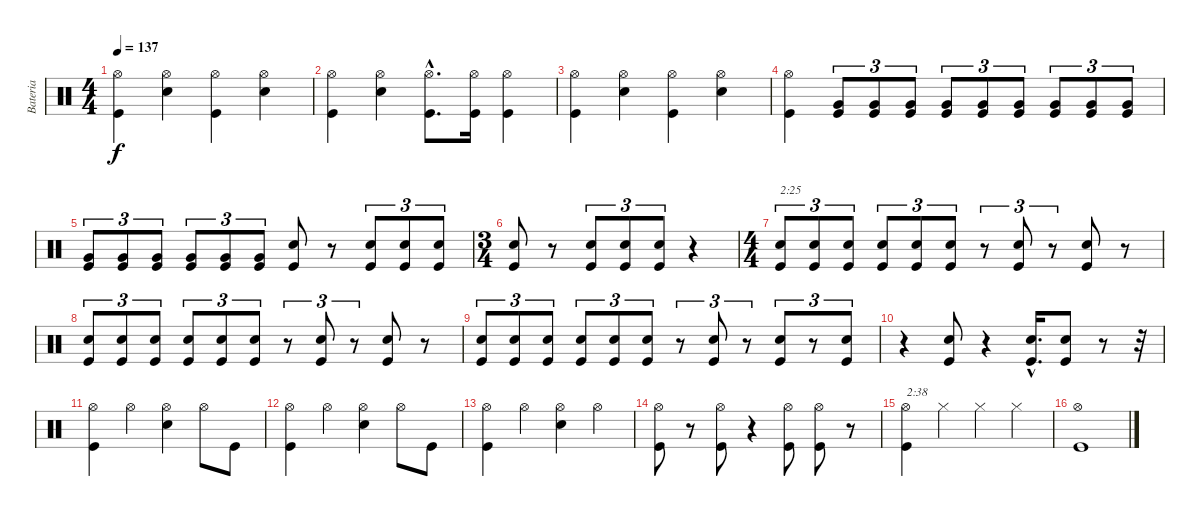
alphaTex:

\track ("Bateria" "Bateria") {instrument percussion}
\staff {score}
\articulation defaults
\ts (4 4)
\tempo 137
\clef neutral
\ks c
("Kick (hit)" "Hi-Hat (open)").4{dy f} ("Snare (hit) 2" "Hi-Hat (open)").4 ("Kick (hit)" "Hi-Hat (open)").4 ("Snare (hit) 2" "Hi-Hat (open)").4 |
("Kick (hit)" "Hi-Hat (open)").4 ("Snare (hit) 2" "Hi-Hat (open)").4 ("Kick (hit)"{hac} "Hi-Hat (open)"{hac}).8{d} ("Kick (hit)" "Hi-Hat (open)").16 ("Kick (hit)" "Hi-Hat (open)").4 |
("Kick (hit)" "Hi-Hat (open)").4 ("Snare (hit) 2" "Hi-Hat (open)").4 ("Kick (hit)" "Hi-Hat (open)").4 ("Snare (hit) 2" "Hi-Hat (open)").4 |
("Kick (hit)" "Hi-Hat (open)").4 ("Kick (hit)" "Very Low Tom (hit)").8{tu (3 2)} ("Kick (hit)" "Very Low Tom (hit)").8{tu (3 2)} ("Kick (hit)" "Very Low Tom (hit)").8{tu (3 2)} ("Kick (hit)" "Very Low Tom (hit)").8{tu (3 2)} ("Kick (hit)" "Very Low Tom (hit)").8{tu (3 2)} ("Kick (hit)" "Very Low Tom (hit)").8{tu (3 2)} ("Kick (hit)" "Very Low Tom (hit)").8{tu (3 2)} ("Kick (hit)" "Very Low Tom (hit)").8{tu (3 2)} ("Kick (hit)" "Very Low Tom (hit)").8{tu (3 2)} |
("Kick (hit)" "Very Low Tom (hit)").8{tu (3 2)} ("Kick (hit)" "Very Low Tom (hit)").8{tu (3 2)} ("Kick (hit)" "Very Low Tom (hit)").8{tu (3 2)} ("Kick (hit)" "Very Low Tom (hit)").8{tu (3 2)} ("Kick (hit)" "Very Low Tom (hit)").8{tu (3 2)} ("Kick (hit)" "Very Low Tom (hit)").8{tu (3 2)} ("Kick (hit)" "Snare (hit) 2").8 r.8 ("Kick (hit)" "Snare (hit) 2").8{tu (3 2)} ("Kick (hit)" "Snare (hit) 2").8{tu (3 2)} ("Kick (hit)" "Snare (hit) 2").8{tu (3 2)} |
\ts (3 4)
("Kick (hit)" "Snare (hit) 2").8 r.8 ("Kick (hit)" "Snare (hit) 2").8{tu (3 2)} ("Kick (hit)" "Snare (hit) 2").8{tu (3 2)} ("Kick (hit)" "Snare (hit) 2").8{tu (3 2)} r.4 |
\ts (4 4)
("Kick (hit)" "Snare (hit) 2").8{tu (3 2) txt "2:25"} ("Kick (hit)" "Snare (hit) 2").8{tu (3 2)} ("Kick (hit)" "Snare (hit) 2").8{tu (3 2)} ("Kick (hit)" "Snare (hit) 2").8{tu (3 2)} ("Kick (hit)" "Snare (hit) 2").8{tu (3 2)} ("Kick (hit)" "Snare (hit) 2").8{tu (3 2)} r.8{tu (3 2)} ("Kick (hit)" "Snare (hit) 2").8{tu (3 2)} r.8{tu (3 2)} ("Kick (hit)" "Snare (hit) 2").8 r.8 |
("Kick (hit)" "Snare (hit) 2").8{tu (3 2)} ("Kick (hit)" "Snare (hit) 2").8{tu (3 2)} ("Kick (hit)" "Snare (hit) 2").8{tu (3 2)} ("Kick (hit)" "Snare (hit) 2").8{tu (3 2)} ("Kick (hit)" "Snare (hit) 2").8{tu (3 2)} ("Kick (hit)" "Snare (hit) 2").8{tu (3 2)} r.8{tu (3 2)} ("Kick (hit)" "Snare (hit) 2").8{tu (3 2)} r.8{tu (3 2)} ("Kick (hit)" "Snare (hit) 2").8 r.8 |
("Kick (hit)" "Snare (hit) 2").8{tu (3 2)} ("Kick (hit)" "Snare (hit) 2").8{tu (3 2)} ("Kick (hit)" "Snare (hit) 2").8{tu (3 2)} ("Kick (hit)" "Snare (hit) 2").8{tu (3 2)} ("Kick (hit)" "Snare (hit) 2").8{tu (3 2)} ("Kick (hit)" "Snare (hit) 2").8{tu (3 2)} r.8{tu (3 2)} ("Kick (hit)" "Snare (hit) 2").8{tu (3 2)} r.8{tu (3 2)} ("Kick (hit)" "Snare (hit) 2").8{tu (3 2)} r.8{tu (3 2)} ("Kick (hit)" "Snare (hit) 2").8{tu (3 2)} |
r.4 ("Kick (hit)" "Snare (hit) 2").8 r.4 ("Kick (hit)"{hac} "Snare (hit) 2"{hac}).16{d} ("Kick (hit)" "Snare (hit) 2").8 r.8 r.32 |
("Kick (hit)" "Hi-Hat (open)").4 "Hi-Hat (open)".4 ("Snare (hit) 2" "Hi-Hat (open)").4 "Hi-Hat (open)".8 "Kick (hit)".8 |
("Kick (hit)" "Hi-Hat (open)").4 "Hi-Hat (open)".4 ("Snare (hit) 2" "Hi-Hat (open)").4 "Hi-Hat (open)".8 "Kick (hit)".8 |
("Kick (hit)" "Hi-Hat (open)").4 "Hi-Hat (open)".4 ("Snare (hit) 2" "Hi-Hat (open)").4 "Hi-Hat (open)".4 |
("Kick (hit)" "Hi-Hat (open)").8 r.8 ("Kick (hit)" "Hi-Hat (open)").8 r.4 ("Kick (hit)" "Hi-Hat (open)").8 ("Kick (hit)" "Hi-Hat (open)").8 r.8 |
("Kick (hit)" "Hi-Hat (open)").4{txt "2:38"} "Hi-Hat (closed)".4 "Hi-Hat (closed)".4 "Hi-Hat (closed)".4 |
("Kick (hit)" "Hi-Hat (open)").1
